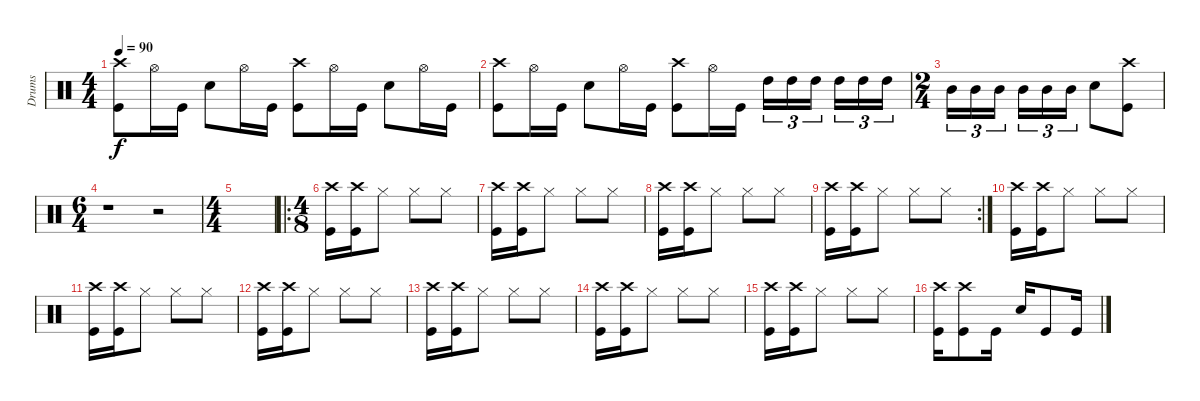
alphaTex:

\track ("Drums" "Drums") {instrument percussion}
\staff {score}
\articulation defaults
\ts (4 4)
\tempo 90
\clef neutral
\ks c
("Kick (hit)" "Crash high (hit)").8{dy f} "Hi-Hat (open)".16 "Kick (hit)".16 "Snare (hit) 2".8 "Hi-Hat (open)".16 "Kick (hit)".16 ("Kick (hit)" "Crash high (hit)").8 "Hi-Hat (open)".16 "Kick (hit)".16 "Snare (hit) 2".8 "Hi-Hat (open)".16 "Kick (hit)".16 |
("Kick (hit)" "Crash high (hit)").8 "Hi-Hat (open)".16 "Kick (hit)".16 "Snare (hit) 2".8 "Hi-Hat (open)".16 "Kick (hit)".16 ("Kick (hit)" "Crash high (hit)").8 "Hi-Hat (open)".16 "Kick (hit)".16 "High Tom (hit)".16{tu (3 2)} "High Tom (hit)".16{tu (3 2)} "High Tom (hit)".16{tu (3 2)} "High Tom (hit)".16{tu (3 2)} "High Tom (hit)".16{tu (3 2)} "High Tom (hit)".16{tu (3 2)} |
\ts (2 4)
"Mid Tom (hit)".16{tu (3 2)} "Mid Tom (hit)".16{tu (3 2)} "Mid Tom (hit)".16{tu (3 2)} "Mid Tom (hit)".16{tu (3 2)} "Mid Tom (hit)".16{tu (3 2)} "Mid Tom (hit)".16{tu (3 2)} "Snare (hit) 2".8 ("Kick (hit)" "Crash high (hit)").8 |
\ts (6 4)
r.1 r.2 |
\ts (4 4)
|
\ro
\ts (4 8)
("Kick (hit)" "Crash high (hit)").16 ("Kick (hit)" "Crash high (hit)").16 "Hi-Hat (closed)".8 "Hi-Hat (closed)".8 "Hi-Hat (closed)".8 |
("Kick (hit)" "Crash high (hit)").16 ("Kick (hit)" "Crash high (hit)").16 "Hi-Hat (closed)".8 "Hi-Hat (closed)".8 "Hi-Hat (closed)".8 |
("Kick (hit)" "Crash high (hit)").16 ("Kick (hit)" "Crash high (hit)").16 "Hi-Hat (closed)".8 "Hi-Hat (closed)".8 "Hi-Hat (closed)".8 |
\rc 2
("Kick (hit)" "Crash high (hit)").16 ("Kick (hit)" "Crash high (hit)").16 "Hi-Hat (closed)".8 "Hi-Hat (closed)".8 "Hi-Hat (closed)".8 |
("Kick (hit)" "Crash high (hit)").16 ("Kick (hit)" "Crash high (hit)").16 "Hi-Hat (closed)".8 "Hi-Hat (closed)".8 "Hi-Hat (closed)".8 |
("Kick (hit)" "Crash high (hit)").16 ("Kick (hit)" "Crash high (hit)").16 "Hi-Hat (closed)".8 "Hi-Hat (closed)".8 "Hi-Hat (closed)".8 |
("Kick (hit)" "Crash high (hit)").16 ("Kick (hit)" "Crash high (hit)").16 "Hi-Hat (closed)".8 "Hi-Hat (closed)".8 "Hi-Hat (closed)".8 |
("Kick (hit)" "Crash high (hit)").16 ("Kick (hit)" "Crash high (hit)").16 "Hi-Hat (closed)".8 "Hi-Hat (closed)".8 "Hi-Hat (closed)".8 |
("Kick (hit)" "Crash high (hit)").16 ("Kick (hit)" "Crash high (hit)").16 "Hi-Hat (closed)".8 "Hi-Hat (closed)".8 "Hi-Hat (closed)".8 |
("Kick (hit)" "Crash high (hit)").16 ("Kick (hit)" "Crash high (hit)").16 "Hi-Hat (closed)".8 "Hi-Hat (closed)".8 "Hi-Hat (closed)".8 |
("Kick (hit)" "Crash high (hit)").16 ("Kick (hit)" "Crash high (hit)").8 "Kick (hit)".16 "Snare (hit) 2".16 "Kick (hit)".8 "Kick (hit)".16
